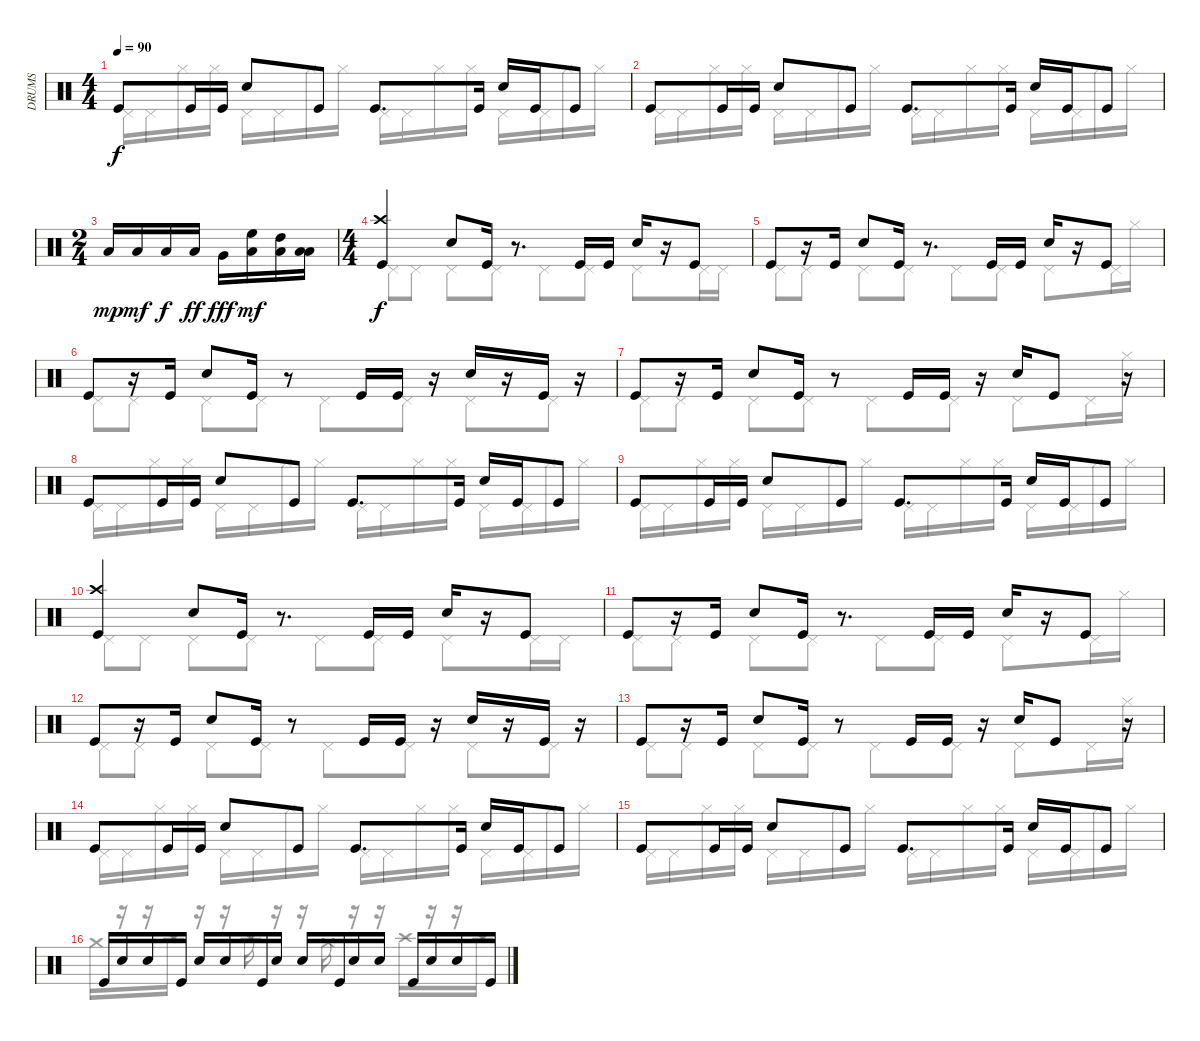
\track ("DRUMS" "DRUMS") {instrument percussion}
\staff {score}
\articulation defaults
\voice
\ts (4 4)
\tempo 90
\clef neutral
\ks c "Kick (hit)".8{dy f} "Kick (hit)".16 "Kick (hit)".16 "Electric Snare (hit)".8 "Kick (hit)".8 "Kick (hit)".8{d} "Kick (hit)".16 "Electric Snare (hit)".16 "Kick (hit)".16 "Kick (hit)".8
|
"Kick (hit)".8 "Kick (hit)".16 "Kick (hit)".16 "Electric Snare (hit)".8 "Kick (hit)".8 "Kick (hit)".8{d} "Kick (hit)".16 "Electric Snare (hit)".16 "Kick (hit)".16 "Kick (hit)".8 |
\ts (2 4)
"Low Floor Tom (hit)".16{dy mp} "Low Floor Tom (hit)".16{dy mf} "Low Floor Tom (hit)".16{dy f} "Low Floor Tom (hit)".16{dy ff} "Very Low Tom (hit)".16{dy fff} ("Low Floor Tom (hit)" "High Floor Tom (hit)").16{dy mf} ("Low Floor Tom (hit)" "High Tom (hit)").16 ("Low Floor Tom (hit)" "Low Tom (hit)").16 |
\ts (4 4)
("Crash high (hit)" "Kick (hit)").4{dy f} "Electric Snare (hit)".8 "Kick (hit)".16 r.8{d} "Kick (hit)".16 "Kick (hit)".16 "Electric Snare (hit)".16 r.16 "Kick (hit)".8 |
"Kick (hit)".8 r.16 "Kick (hit)".16 "Electric Snare (hit)".8 "Kick (hit)".16 r.8{d} "Kick (hit)".16 "Kick (hit)".16 "Electric Snare (hit)".16 r.16 "Kick (hit)".8 |
"Kick (hit)".8 r.16 "Kick (hit)".16 "Electric Snare (hit)".8 "Kick (hit)".16 r.8 "Kick (hit)".16 "Kick (hit)".16 r.16 "Electric Snare (hit)".16 r.16 "Kick (hit)".16 r.16 |
"Kick (hit)".8 r.16 "Kick (hit)".16 "Electric Snare (hit)".8 "Kick (hit)".16 r.8 "Kick (hit)".16 "Kick (hit)".16 r.16 "Electric Snare (hit)".16 "Kick (hit)".8 r.16 |
"Kick (hit)".8 "Kick (hit)".16 "Kick (hit)".16 "Electric Snare (hit)".8 "Kick (hit)".8 "Kick (hit)".8{d} "Kick (hit)".16 "Electric Snare (hit)".16 "Kick (hit)".16 "Kick (hit)".8 |
"Kick (hit)".8 "Kick (hit)".16 "Kick (hit)".16 "Electric Snare (hit)".8 "Kick (hit)".8 "Kick (hit)".8{d} "Kick (hit)".16 "Electric Snare (hit)".16 "Kick (hit)".16 "Kick (hit)".8 |
("Crash high (hit)" "Kick (hit)").4 "Electric Snare (hit)".8 "Kick (hit)".16 r.8{d} "Kick (hit)".16 "Kick (hit)".16 "Electric Snare (hit)".16 r.16 "Kick (hit)".8 |
"Kick (hit)".8 r.16 "Kick (hit)".16 "Electric Snare (hit)".8 "Kick (hit)".16 r.8{d} "Kick (hit)".16 "Kick (hit)".16 "Electric Snare (hit)".16 r.16 "Kick (hit)".8 |
"Kick (hit)".8 r.16 "Kick (hit)".16 "Electric Snare (hit)".8 "Kick (hit)".16 r.8 "Kick (hit)".16 "Kick (hit)".16 r.16 "Electric Snare (hit)".16 r.16 "Kick (hit)".16 r.16 |
"Kick (hit)".8 r.16 "Kick (hit)".16 "Electric Snare (hit)".8 "Kick (hit)".16 r.8 "Kick (hit)".16 "Kick (hit)".16 r.16 "Electric Snare (hit)".16 "Kick (hit)".8 r.16 |
"Kick (hit)".8 "Kick (hit)".16 "Kick (hit)".16 "Electric Snare (hit)".8 "Kick (hit)".8 "Kick (hit)".8{d} "Kick (hit)".16 "Electric Snare (hit)".16 "Kick (hit)".16 "Kick (hit)".8 |
"Kick (hit)".8 "Kick (hit)".16 "Kick (hit)".16 "Electric Snare (hit)".8 "Kick (hit)".8 "Kick (hit)".8{d} "Kick (hit)".16 "Electric Snare (hit)".16 "Kick (hit)".16 "Kick (hit)".8 |
"Kick (hit)".16 "Electric Snare (hit)".16 "Electric Snare (hit)".16 "Kick (hit)".16 "Electric Snare (hit)".16 "Electric Snare (hit)".16 "Kick (hit)".16 "Electric Snare (hit)".16 "Electric Snare (hit)".16 "Kick (hit)".16 "Electric Snare (hit)".16 "Electric Snare (hit)".16 "Kick (hit)".16 "Electric Snare (hit)".16 "Electric Snare (hit)".16 "Kick (hit)".16
\voice
\clef neutral
\ottava regular
\simile none
\ks c "Pedal Hi-Hat (hit)".16{dy f} "Pedal Hi-Hat (hit)".16 "Hi-Hat (closed)".16 "Hi-Hat (closed)".16 "Pedal Hi-Hat (hit)".16 "Pedal Hi-Hat (hit)".16 "Hi-Hat (closed)".16 "Hi-Hat (closed)".16 "Pedal Hi-Hat (hit)".16 "Pedal Hi-Hat (hit)".16 "Hi-Hat (closed)".16 "Hi-Hat (closed)".16 "Pedal Hi-Hat (hit)".16 "Pedal Hi-Hat (hit)".16 "Hi-Hat (closed)".16 "Hi-Hat (closed)".16
|
"Pedal Hi-Hat (hit)".16 "Pedal Hi-Hat (hit)".16 "Hi-Hat (closed)".16 "Hi-Hat (closed)".16 "Pedal Hi-Hat (hit)".16 "Pedal Hi-Hat (hit)".16 "Hi-Hat (closed)".16 "Hi-Hat (closed)".16 "Pedal Hi-Hat (hit)".16 "Pedal Hi-Hat (hit)".16 "Hi-Hat (closed)".16 "Hi-Hat (closed)".16 "Pedal Hi-Hat (hit)".16 "Pedal Hi-Hat (hit)".16 "Hi-Hat (closed)".16 "Hi-Hat (closed)".16 |
|
"Pedal Hi-Hat (hit)".8 "Pedal Hi-Hat (hit)".8 "Pedal Hi-Hat (hit)".8 "Pedal Hi-Hat (hit)".8 "Pedal Hi-Hat (hit)".8 "Pedal Hi-Hat (hit)".8 "Pedal Hi-Hat (hit)".8 "Pedal Hi-Hat (hit)".16 "Pedal Hi-Hat (hit)".16 |
"Pedal Hi-Hat (hit)".8 "Pedal Hi-Hat (hit)".8 "Pedal Hi-Hat (hit)".8 "Pedal Hi-Hat (hit)".8 "Pedal Hi-Hat (hit)".8 "Pedal Hi-Hat (hit)".8 "Pedal Hi-Hat (hit)".8 "Pedal Hi-Hat (hit)".16 "Hi-Hat (closed)".16 |
"Pedal Hi-Hat (hit)".8 "Pedal Hi-Hat (hit)".8 "Pedal Hi-Hat (hit)".8 "Pedal Hi-Hat (hit)".8 "Pedal Hi-Hat (hit)".8 "Pedal Hi-Hat (hit)".8 "Pedal Hi-Hat (hit)".8 "Pedal Hi-Hat (hit)".8 |
"Pedal Hi-Hat (hit)".8 "Pedal Hi-Hat (hit)".8 "Pedal Hi-Hat (hit)".8 "Pedal Hi-Hat (hit)".8 "Pedal Hi-Hat (hit)".8 "Pedal Hi-Hat (hit)".8 "Pedal Hi-Hat (hit)".8 "Pedal Hi-Hat (hit)".16 "Hi-Hat (closed)".16 |
"Pedal Hi-Hat (hit)".16 "Pedal Hi-Hat (hit)".16 "Hi-Hat (closed)".16 "Hi-Hat (closed)".16 "Pedal Hi-Hat (hit)".16 "Pedal Hi-Hat (hit)".16 "Hi-Hat (closed)".16 "Hi-Hat (closed)".16 "Pedal Hi-Hat (hit)".16 "Pedal Hi-Hat (hit)".16 "Hi-Hat (closed)".16 "Hi-Hat (closed)".16 "Pedal Hi-Hat (hit)".16 "Pedal Hi-Hat (hit)".16 "Hi-Hat (closed)".16 "Hi-Hat (closed)".16 |
"Pedal Hi-Hat (hit)".16 "Pedal Hi-Hat (hit)".16 "Hi-Hat (closed)".16 "Hi-Hat (closed)".16 "Pedal Hi-Hat (hit)".16 "Pedal Hi-Hat (hit)".16 "Hi-Hat (closed)".16 "Hi-Hat (closed)".16 "Pedal Hi-Hat (hit)".16 "Pedal Hi-Hat (hit)".16 "Hi-Hat (closed)".16 "Hi-Hat (closed)".16 "Pedal Hi-Hat (hit)".16 "Pedal Hi-Hat (hit)".16 "Hi-Hat (closed)".16 "Hi-Hat (closed)".16 |
"Pedal Hi-Hat (hit)".8 "Pedal Hi-Hat (hit)".8 "Pedal Hi-Hat (hit)".8 "Pedal Hi-Hat (hit)".8 "Pedal Hi-Hat (hit)".8 "Pedal Hi-Hat (hit)".8 "Pedal Hi-Hat (hit)".8 "Pedal Hi-Hat (hit)".16 "Pedal Hi-Hat (hit)".16 |
"Pedal Hi-Hat (hit)".8 "Pedal Hi-Hat (hit)".8 "Pedal Hi-Hat (hit)".8 "Pedal Hi-Hat (hit)".8 "Pedal Hi-Hat (hit)".8 "Pedal Hi-Hat (hit)".8 "Pedal Hi-Hat (hit)".8 "Pedal Hi-Hat (hit)".16 "Hi-Hat (closed)".16 |
"Pedal Hi-Hat (hit)".8 "Pedal Hi-Hat (hit)".8 "Pedal Hi-Hat (hit)".8 "Pedal Hi-Hat (hit)".8 "Pedal Hi-Hat (hit)".8 "Pedal Hi-Hat (hit)".8 "Pedal Hi-Hat (hit)".8 "Pedal Hi-Hat (hit)".8 |
"Pedal Hi-Hat (hit)".8 "Pedal Hi-Hat (hit)".8 "Pedal Hi-Hat (hit)".8 "Pedal Hi-Hat (hit)".8 "Pedal Hi-Hat (hit)".8 "Pedal Hi-Hat (hit)".8 "Pedal Hi-Hat (hit)".8 "Pedal Hi-Hat (hit)".16 "Hi-Hat (closed)".16 |
"Pedal Hi-Hat (hit)".16 "Pedal Hi-Hat (hit)".16 "Hi-Hat (closed)".16 "Hi-Hat (closed)".16 "Pedal Hi-Hat (hit)".16 "Pedal Hi-Hat (hit)".16 "Hi-Hat (closed)".16 "Hi-Hat (closed)".16 "Pedal Hi-Hat (hit)".16 "Pedal Hi-Hat (hit)".16 "Hi-Hat (closed)".16 "Hi-Hat (closed)".16 "Pedal Hi-Hat (hit)".16 "Pedal Hi-Hat (hit)".16 "Hi-Hat (closed)".16 "Hi-Hat (closed)".16 |
"Pedal Hi-Hat (hit)".16 "Pedal Hi-Hat (hit)".16 "Hi-Hat (closed)".16 "Hi-Hat (closed)".16 "Pedal Hi-Hat (hit)".16 "Pedal Hi-Hat (hit)".16 "Hi-Hat (closed)".16 "Hi-Hat (closed)".16 "Pedal Hi-Hat (hit)".16 "Pedal Hi-Hat (hit)".16 "Hi-Hat (closed)".16 "Hi-Hat (closed)".16 "Pedal Hi-Hat (hit)".16 "Pedal Hi-Hat (hit)".16 "Hi-Hat (closed)".16 "Hi-Hat (closed)".16 |
"Crash medium (hit)".16 r.16 r.16 "Crash high (hit)".16 r.16 r.16 "Crash high (hit)".16 r.16 r.16 "Crash medium (hit)".16 r.16 r.16 "Crash high (hit)".16 r.16 r.16 "Crash high (hit)".16
